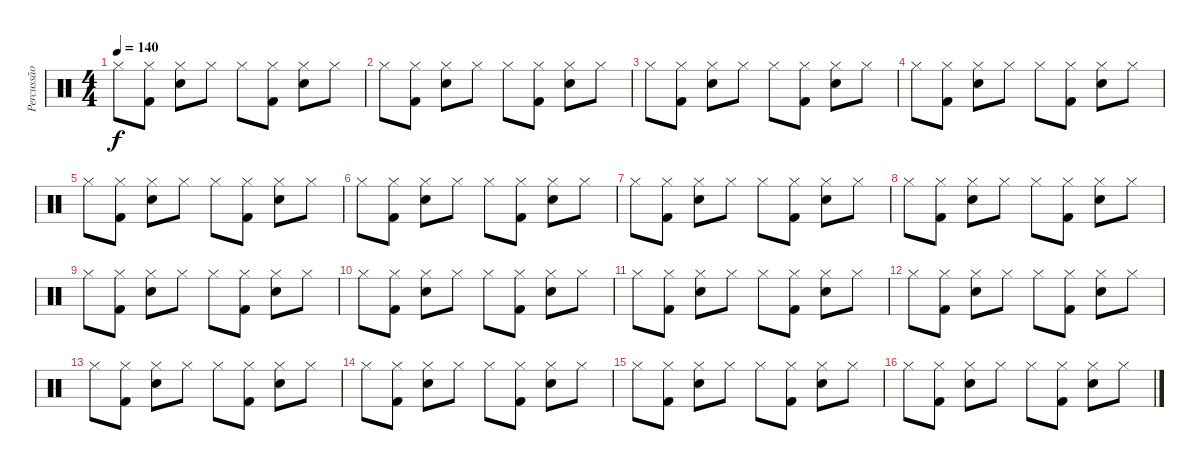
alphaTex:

\track ("Percussão" "Percussão") {instrument percussion}
\staff {score}
\articulation defaults
\ts (4 4)
\tempo 140
\clef neutral
\ks c "Hi-Hat (closed)".8{dy f}
("Kick (hit) 2" "Hi-Hat (closed)").8 ("Snare (hit) 2" "Hi-Hat (closed)").8 "Hi-Hat (closed)".8 "Hi-Hat (closed)".8 ("Kick (hit) 2" "Hi-Hat (closed)").8 ("Hi-Hat (closed)" "Snare (hit) 2").8 "Hi-Hat (closed)".8 |
"Hi-Hat (closed)".8 ("Kick (hit) 2" "Hi-Hat (closed)").8 ("Snare (hit) 2" "Hi-Hat (closed)").8 "Hi-Hat (closed)".8 "Hi-Hat (closed)".8 ("Kick (hit) 2" "Hi-Hat (closed)").8 ("Hi-Hat (closed)" "Snare (hit) 2").8 "Hi-Hat (closed)".8 |
"Hi-Hat (closed)".8 ("Kick (hit) 2" "Hi-Hat (closed)").8 ("Snare (hit) 2" "Hi-Hat (closed)").8 "Hi-Hat (closed)".8 "Hi-Hat (closed)".8 ("Kick (hit) 2" "Hi-Hat (closed)").8 ("Hi-Hat (closed)" "Snare (hit) 2").8 "Hi-Hat (closed)".8 |
"Hi-Hat (closed)".8 ("Kick (hit) 2" "Hi-Hat (closed)").8 ("Snare (hit) 2" "Hi-Hat (closed)").8 "Hi-Hat (closed)".8 "Hi-Hat (closed)".8 ("Kick (hit) 2" "Hi-Hat (closed)").8 ("Hi-Hat (closed)" "Snare (hit) 2").8 "Hi-Hat (closed)".8 |
"Hi-Hat (closed)".8 ("Kick (hit) 2" "Hi-Hat (closed)").8 ("Snare (hit) 2" "Hi-Hat (closed)").8 "Hi-Hat (closed)".8 "Hi-Hat (closed)".8 ("Kick (hit) 2" "Hi-Hat (closed)").8 ("Hi-Hat (closed)" "Snare (hit) 2").8 "Hi-Hat (closed)".8 |
"Hi-Hat (closed)".8 ("Kick (hit) 2" "Hi-Hat (closed)").8 ("Snare (hit) 2" "Hi-Hat (closed)").8 "Hi-Hat (closed)".8 "Hi-Hat (closed)".8 ("Kick (hit) 2" "Hi-Hat (closed)").8 ("Hi-Hat (closed)" "Snare (hit) 2").8 "Hi-Hat (closed)".8 |
"Hi-Hat (closed)".8 ("Kick (hit) 2" "Hi-Hat (closed)").8 ("Snare (hit) 2" "Hi-Hat (closed)").8 "Hi-Hat (closed)".8 "Hi-Hat (closed)".8 ("Kick (hit) 2" "Hi-Hat (closed)").8 ("Hi-Hat (closed)" "Snare (hit) 2").8 "Hi-Hat (closed)".8 |
"Hi-Hat (closed)".8 ("Kick (hit) 2" "Hi-Hat (closed)").8 ("Snare (hit) 2" "Hi-Hat (closed)").8 "Hi-Hat (closed)".8 "Hi-Hat (closed)".8 ("Kick (hit) 2" "Hi-Hat (closed)").8 ("Hi-Hat (closed)" "Snare (hit) 2").8 "Hi-Hat (closed)".8 |
"Hi-Hat (closed)".8 ("Kick (hit) 2" "Hi-Hat (closed)").8 ("Snare (hit) 2" "Hi-Hat (closed)").8 "Hi-Hat (closed)".8 "Hi-Hat (closed)".8 ("Kick (hit) 2" "Hi-Hat (closed)").8 ("Hi-Hat (closed)" "Snare (hit) 2").8 "Hi-Hat (closed)".8 |
"Hi-Hat (closed)".8 ("Kick (hit) 2" "Hi-Hat (closed)").8 ("Snare (hit) 2" "Hi-Hat (closed)").8 "Hi-Hat (closed)".8 "Hi-Hat (closed)".8 ("Kick (hit) 2" "Hi-Hat (closed)").8 ("Hi-Hat (closed)" "Snare (hit) 2").8 "Hi-Hat (closed)".8 |
"Hi-Hat (closed)".8 ("Kick (hit) 2" "Hi-Hat (closed)").8 ("Snare (hit) 2" "Hi-Hat (closed)").8 "Hi-Hat (closed)".8 "Hi-Hat (closed)".8 ("Kick (hit) 2" "Hi-Hat (closed)").8 ("Hi-Hat (closed)" "Snare (hit) 2").8 "Hi-Hat (closed)".8 |
"Hi-Hat (closed)".8 ("Kick (hit) 2" "Hi-Hat (closed)").8 ("Snare (hit) 2" "Hi-Hat (closed)").8 "Hi-Hat (closed)".8 "Hi-Hat (closed)".8 ("Kick (hit) 2" "Hi-Hat (closed)").8 ("Hi-Hat (closed)" "Snare (hit) 2").8 "Hi-Hat (closed)".8 |
"Hi-Hat (closed)".8 ("Kick (hit) 2" "Hi-Hat (closed)").8 ("Snare (hit) 2" "Hi-Hat (closed)").8 "Hi-Hat (closed)".8 "Hi-Hat (closed)".8 ("Kick (hit) 2" "Hi-Hat (closed)").8 ("Hi-Hat (closed)" "Snare (hit) 2").8 "Hi-Hat (closed)".8 |
"Hi-Hat (closed)".8 ("Kick (hit) 2" "Hi-Hat (closed)").8 ("Snare (hit) 2" "Hi-Hat (closed)").8 "Hi-Hat (closed)".8 "Hi-Hat (closed)".8 ("Kick (hit) 2" "Hi-Hat (closed)").8 ("Hi-Hat (closed)" "Snare (hit) 2").8 "Hi-Hat (closed)".8 |
"Hi-Hat (closed)".8 ("Kick (hit) 2" "Hi-Hat (closed)").8 ("Snare (hit) 2" "Hi-Hat (closed)").8 "Hi-Hat (closed)".8 "Hi-Hat (closed)".8 ("Kick (hit) 2" "Hi-Hat (closed)").8 ("Hi-Hat (closed)" "Snare (hit) 2").8 "Hi-Hat (closed)".8 |
"Hi-Hat (closed)".8 ("Kick (hit) 2" "Hi-Hat (closed)").8 ("Snare (hit) 2" "Hi-Hat (closed)").8 "Hi-Hat (closed)".8 "Hi-Hat (closed)".8 ("Kick (hit) 2" "Hi-Hat (closed)").8 ("Hi-Hat (closed)" "Snare (hit) 2").8 "Hi-Hat (closed)".8
